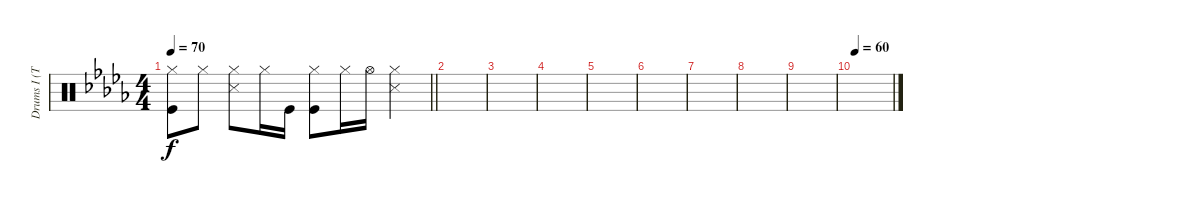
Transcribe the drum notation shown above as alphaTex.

\track ("Drums I (Tainaka Ritsu)" "Drums I (T") {instrument percussion}
\staff {score}
\articulation defaults
\ts (4 4)
\tempo 70
\clef neutral
\barLineRight lightlight
\ks db
("Hi-Hat (closed)" "Kick (hit)").8{dy f} "Hi-Hat (closed)".8 ("Hi-Hat (closed)" "Snare (side stick) 3").8 "Hi-Hat (closed)".16 "Kick (hit)".16 ("Hi-Hat (closed)" "Kick (hit)").8 "Hi-Hat (closed)".16 "Hi-Hat (open)".16 ("Hi-Hat (closed)" "Snare (side stick) 3").4 |
|
|
|
|
|
|
|
|
\tempo 60
